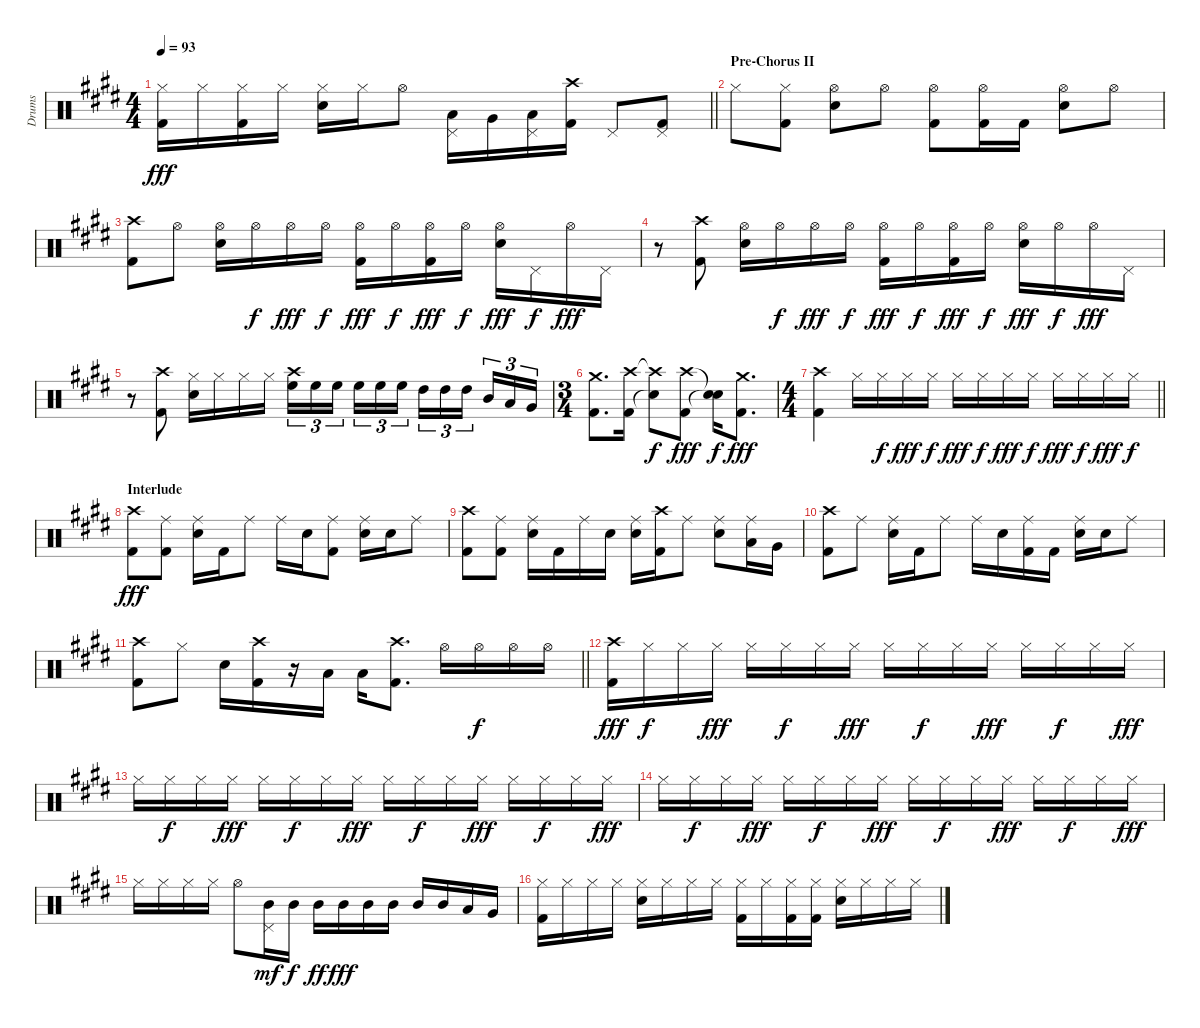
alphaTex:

\track ("Drums" "Drums") {instrument percussion}
\staff {score}
\articulation defaults
\ts (4 4)
\tempo 93
\clef neutral
\barLineRight lightlight
\ks e
("Hi-Hat (closed)" "Kick (hit) 2").16{dy fff} "Hi-Hat (closed)".16 ("Hi-Hat (closed)" "Kick (hit) 2").16 "Hi-Hat (closed)".16 ("Hi-Hat (closed)" "Snare (hit) 2").16 "Hi-Hat (closed)".16 "Hi-Hat (open)".8 ("Pedal Hi-Hat (hit)" "Low Tom (hit)").16 "Very Low Tom (hit)".16 ("Pedal Hi-Hat (hit)" "Low Floor Tom (hit)").16 ("Crash high (hit)" "Kick (hit) 2").16 "Pedal Hi-Hat (hit)".8 ("Pedal Hi-Hat (hit)" "Kick (hit) 2").8 |
\section ("" "Pre-Chorus II")
"Hi-Hat (closed)".8 ("Hi-Hat (closed)" "Kick (hit) 2").8 ("Hi-Hat (open)" "Snare (hit) 2").8 "Hi-Hat (open)".8 ("Hi-Hat (open)" "Kick (hit) 2").8 ("Hi-Hat (open)" "Kick (hit) 2").16 "Kick (hit) 2".16 ("Hi-Hat (open)" "Snare (hit) 2").8 "Hi-Hat (open)".8 |
("Crash high (hit)" "Kick (hit) 2").8 "Hi-Hat (open)".8 ("Hi-Hat (open)" "Snare (hit) 2").16 "Hi-Hat (open)".16{dy f} "Hi-Hat (open)".16{dy fff} "Hi-Hat (open)".16{dy f} ("Hi-Hat (open)" "Kick (hit) 2").16{dy fff} "Hi-Hat (open)".16{dy f} ("Hi-Hat (open)" "Kick (hit) 2").16{dy fff} "Hi-Hat (open)".16{dy f} ("Hi-Hat (open)" "Snare (hit) 2").16{dy fff} "Pedal Hi-Hat (hit)".16{dy f} "Hi-Hat (open)".16{dy fff} "Pedal Hi-Hat (hit)".16 |
r.8 ("Crash high (hit)" "Kick (hit) 2").8 ("Hi-Hat (open)" "Snare (hit) 2").16 "Hi-Hat (open)".16{dy f} "Hi-Hat (open)".16{dy fff} "Hi-Hat (open)".16{dy f} ("Hi-Hat (open)" "Kick (hit) 2").16{dy fff} "Hi-Hat (open)".16{dy f} ("Hi-Hat (open)" "Kick (hit) 2").16{dy fff} "Hi-Hat (open)".16{dy f} ("Hi-Hat (open)" "Snare (hit) 2").16{dy fff} "Hi-Hat (open)".16{dy f} "Hi-Hat (open)".16{dy fff} "Pedal Hi-Hat (hit)".16 |
r.8 ("Crash high (hit)" "Kick (hit) 2").8 ("Hi-Hat (closed)" "Snare (hit) 2").16 "Hi-Hat (closed)".16 "Hi-Hat (closed)".16 "Hi-Hat (closed)".16 ("Crash high (hit)" "High Floor Tom (hit)").16{tu (3 2)} "High Floor Tom (hit)".16{tu (3 2)} "High Floor Tom (hit)".16{tu (3 2) beam splitsecondary} "High Floor Tom (hit)".16{tu (3 2)} "High Floor Tom (hit)".16{tu (3 2)} "High Floor Tom (hit)".16{tu (3 2)} "High Tom (hit)".16{tu (3 2)} "High Tom (hit)".16{tu (3 2)} "High Tom (hit)".16{tu (3 2) beam splitsecondary} "Mid Tom (hit)".16{tu (3 2)} "Low Tom (hit)".16{tu (3 2)} "Very Low Tom (hit)".16{tu (3 2)} |
\ts (3 4)
("Crash medium (hit)" "Kick (hit) 2").8{d} ("Crash high (hit)" "Kick (hit) 2").16 ("Crash high (hit)"{t} "Snare (hit)"{t}).8{dy f} ("Crash high (hit)" "Kick (hit) 2").8{dy fff} ("Snare (hit)"{t} "Snare (hit)"{t}).16{dy f} ("Crash medium (hit)" "Kick (hit) 2").8{d dy fff} |
\ts (4 4)
\barLineRight lightlight
("Crash high (hit)" "Kick (hit) 2").4 "Hi-Hat (closed)".16 "Hi-Hat (closed)".16{dy f} "Hi-Hat (closed)".16{dy fff} "Hi-Hat (closed)".16{dy f} "Hi-Hat (closed)".16{dy fff} "Hi-Hat (closed)".16{dy f} "Hi-Hat (closed)".16{dy fff} "Hi-Hat (closed)".16{dy f} "Hi-Hat (closed)".16{dy fff} "Hi-Hat (closed)".16{dy f} "Hi-Hat (closed)".16{dy fff} "Hi-Hat (closed)".16{dy f} |
\section ("" "Interlude")
("Crash high (hit)" "Kick (hit) 2").8{dy fff} ("Ride (middle)" "Kick (hit) 2").8 ("Ride (middle)" "Snare (hit) 2").16 "Kick (hit) 2".16 "Ride (middle)".8 "Ride (middle)".16 "Snare (hit) 2".16 ("Ride (middle)" "Kick (hit) 2").8 ("Ride (middle)" "Snare (hit) 2").16 "Snare (hit) 2".16 "Ride (middle)".8 |
("Crash high (hit)" "Kick (hit) 2").8 ("Ride (middle)" "Kick (hit) 2").8 ("Ride (middle)" "Snare (hit) 2").16 "Kick (hit) 2".16 "Ride (middle)".16 "Snare (hit) 2".16 ("Ride (middle)" "Snare (hit) 2").16 ("Crash high (hit)" "Kick (hit) 2").16 "Ride (middle)".8 ("Ride (middle)" "Snare (hit) 2").8 ("Ride (middle)" "Low Tom (hit)").16 "Very Low Tom (hit)".16 |
("Crash high (hit)" "Kick (hit) 2").8 "Ride (middle)".8 ("Ride (middle)" "Snare (hit) 2").16 "Kick (hit) 2".16 "Ride (middle)".8 "Ride (middle)".16 "Snare (hit) 2".16 ("Ride (middle)" "Kick (hit) 2").16 "Kick (hit) 2".16 ("Ride (middle)" "Snare (hit) 2").16 "Snare (hit) 2".16 "Ride (middle)".8 |
\barLineRight lightlight
("Crash high (hit)" "Kick (hit) 2").8 "Hi-Hat (closed)".8 "Snare (hit) 2".16 ("Crash high (hit)" "Kick (hit) 2").16 r.16 "Low Tom (hit)".16 "Low Tom (hit)".16 ("Crash high (hit)" "Kick (hit) 2").8{d} "Hi-Hat (open)".16 "Hi-Hat (open)".16{dy f} "Hi-Hat (open)".16 "Hi-Hat (open)".16 |
("Crash high (hit)" "Kick (hit) 2").16{dy fff} "Hi-Hat (closed)".16{dy f} "Hi-Hat (closed)".16 "Hi-Hat (closed)".16{dy fff} "Hi-Hat (closed)".16 "Hi-Hat (closed)".16{dy f} "Hi-Hat (closed)".16 "Hi-Hat (closed)".16{dy fff} "Hi-Hat (closed)".16 "Hi-Hat (closed)".16{dy f} "Hi-Hat (closed)".16 "Hi-Hat (closed)".16{dy fff} "Hi-Hat (closed)".16 "Hi-Hat (closed)".16{dy f} "Hi-Hat (closed)".16 "Hi-Hat (closed)".16{dy fff} |
"Hi-Hat (closed)".16 "Hi-Hat (closed)".16{dy f} "Hi-Hat (closed)".16 "Hi-Hat (closed)".16{dy fff} "Hi-Hat (closed)".16 "Hi-Hat (closed)".16{dy f} "Hi-Hat (closed)".16 "Hi-Hat (closed)".16{dy fff} "Hi-Hat (closed)".16 "Hi-Hat (closed)".16{dy f} "Hi-Hat (closed)".16 "Hi-Hat (closed)".16{dy fff} "Hi-Hat (closed)".16 "Hi-Hat (closed)".16{dy f} "Hi-Hat (closed)".16 "Hi-Hat (closed)".16{dy fff} |
"Hi-Hat (closed)".16 "Hi-Hat (closed)".16{dy f} "Hi-Hat (closed)".16 "Hi-Hat (closed)".16{dy fff} "Hi-Hat (closed)".16 "Hi-Hat (closed)".16{dy f} "Hi-Hat (closed)".16 "Hi-Hat (closed)".16{dy fff} "Hi-Hat (closed)".16 "Hi-Hat (closed)".16{dy f} "Hi-Hat (closed)".16 "Hi-Hat (closed)".16{dy fff} "Hi-Hat (closed)".16 "Hi-Hat (closed)".16{dy f} "Hi-Hat (closed)".16 "Hi-Hat (closed)".16{dy fff} |
"Hi-Hat (closed)".16 "Hi-Hat (closed)".16 "Hi-Hat (closed)".16 "Hi-Hat (closed)".16 "Hi-Hat (open)".8 ("Pedal Hi-Hat (hit)" "Mid Tom (hit)").16{dy mf} "Mid Tom (hit)".16{dy f} "Mid Tom (hit)".16{dy ff} "Mid Tom (hit)".16{dy fff} "Mid Tom (hit)".16 "Mid Tom (hit)".16 "Mid Tom (hit)".16 "Mid Tom (hit)".16 "Low Tom (hit)".16 "Very Low Tom (hit)".16 |
("Hi-Hat (closed)" "Kick (hit) 2").16 "Hi-Hat (closed)".16 "Hi-Hat (closed)".16 "Hi-Hat (closed)".16 ("Hi-Hat (closed)" "Snare (hit) 2").16 "Hi-Hat (closed)".16 "Hi-Hat (closed)".16 "Hi-Hat (closed)".16 ("Hi-Hat (closed)" "Kick (hit) 2").16 "Hi-Hat (closed)".16 ("Hi-Hat (closed)" "Kick (hit) 2").16 ("Hi-Hat (closed)" "Kick (hit) 2").16 ("Hi-Hat (closed)" "Snare (hit) 2").16 "Hi-Hat (closed)".16 "Hi-Hat (closed)".16 "Hi-Hat (closed)".16
